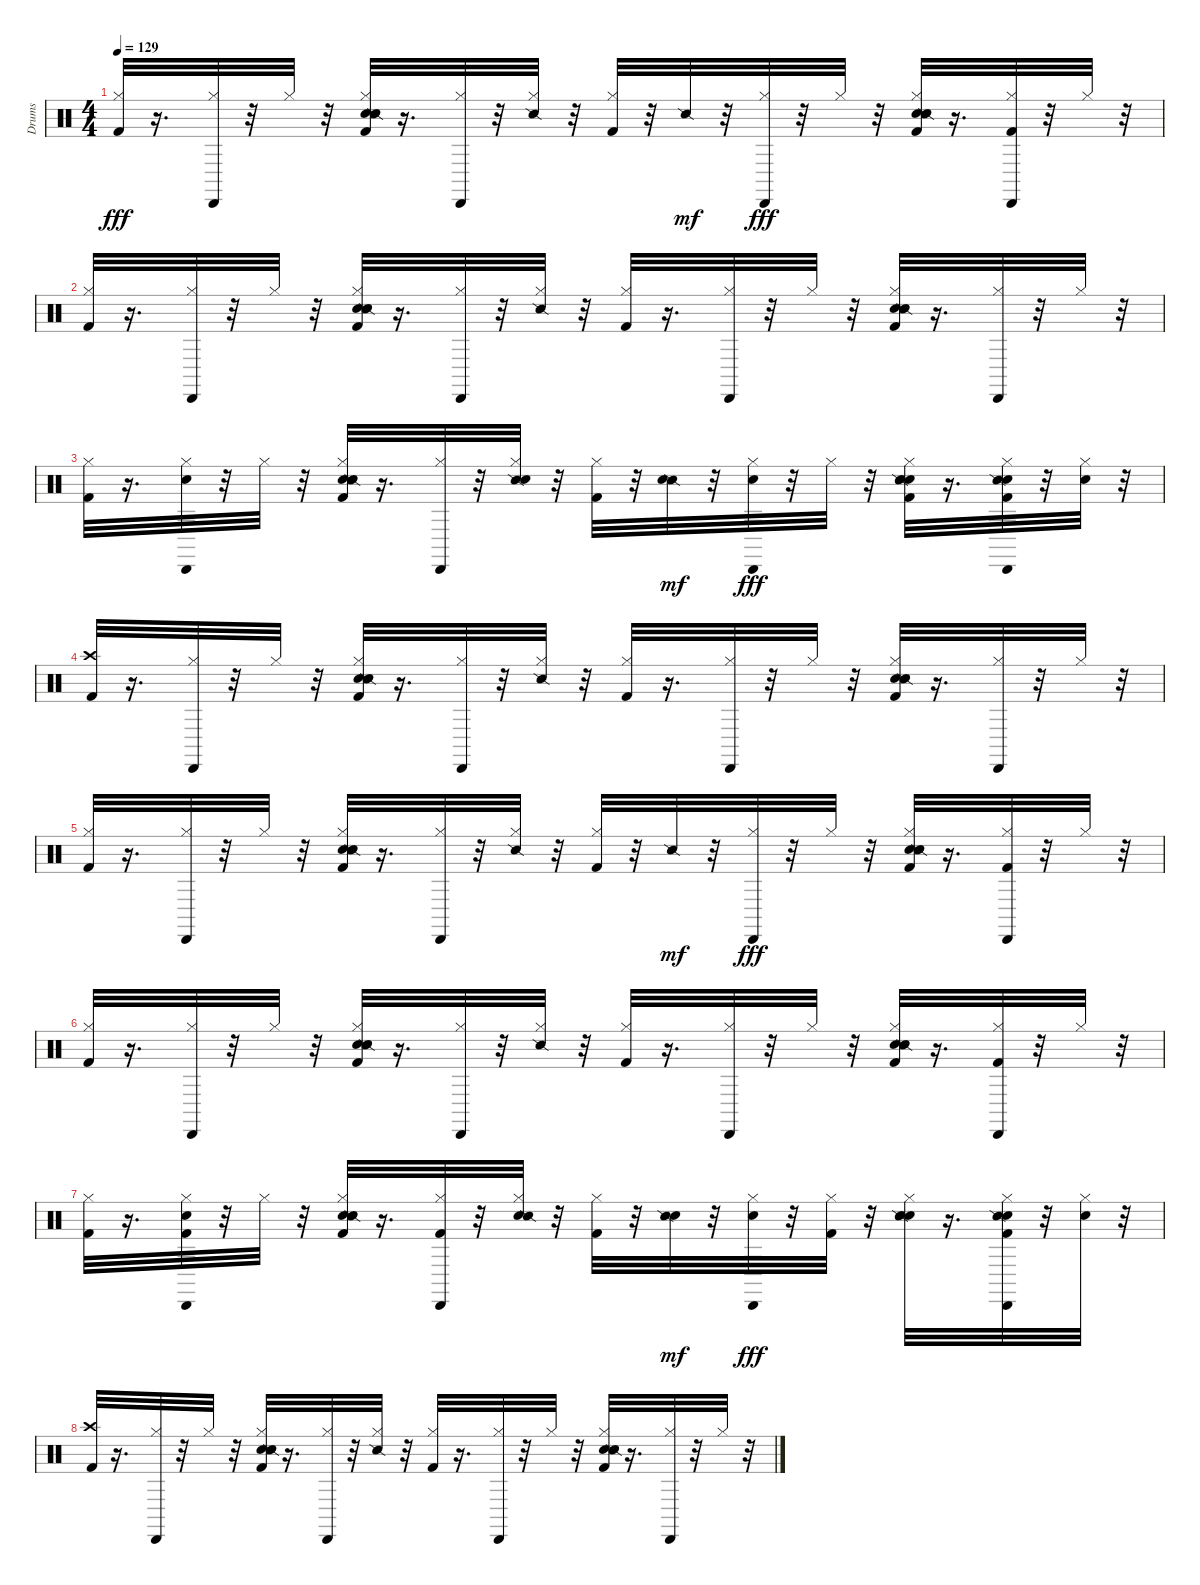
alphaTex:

\track ("Drums" "Drums") {instrument percussion}
\staff {score}
\articulation defaults
\ts (4 4)
\tempo 129
\clef neutral
\ks c
("Kick (hit) 2" "Hi-Hat (closed)").32{dy fff} r.16{d} ("Cabasa (hit)" "Hi-Hat (closed)").32 r.32 "Hi-Hat (closed)".32 r.32 ("Snare (hit)" "Hand Clap (hit)" "Snare (side stick) 2" "Hi-Hat (closed)" "Kick (hit) 2").32 r.16{d} ("Cabasa (hit)" "Hi-Hat (closed)").32 r.32 ("Snare (side stick) 2" "Hi-Hat (closed)").32 r.32 ("Kick (hit) 2" "Hi-Hat (closed)").32 r.32 "Snare (side stick) 2".32{dy mf} r.32 ("Cabasa (hit)" "Hi-Hat (closed)").32{dy fff} r.32 "Hi-Hat (closed)".32 r.32 ("Snare (hit)" "Hand Clap (hit)" "Snare (side stick) 2" "Hi-Hat (closed)" "Kick (hit) 2").32 r.16{d} ("Kick (hit) 2" "Cabasa (hit)" "Hi-Hat (closed)").32 r.32 "Hi-Hat (closed)".32 r.32 |
("Kick (hit) 2" "Hi-Hat (closed)").32 r.16{d} ("Cabasa (hit)" "Hi-Hat (closed)").32 r.32 "Hi-Hat (closed)".32 r.32 ("Snare (hit)" "Snare (side stick) 2" "Hi-Hat (closed)" "Kick (hit) 2" "Hand Clap (hit)").32 r.16{d} ("Cabasa (hit)" "Hi-Hat (closed)").32 r.32 ("Snare (side stick) 2" "Hi-Hat (closed)").32 r.32 ("Kick (hit) 2" "Hi-Hat (closed)").32 r.16{d} ("Cabasa (hit)" "Hi-Hat (closed)").32 r.32 "Hi-Hat (closed)".32 r.32 ("Snare (hit)" "Snare (side stick) 2" "Hi-Hat (closed)" "Kick (hit) 2" "Hand Clap (hit)").32 r.16{d} ("Cabasa (hit)" "Hi-Hat (closed)").32 r.32 "Hi-Hat (closed)".32 r.32 |
("Kick (hit) 2" "Hi-Hat (closed)").32 r.16{d} ("Cabasa (hit)" "Hi-Hat (closed)" "Hand Clap (hit)").32 r.32 "Hi-Hat (closed)".32 r.32 ("Snare (hit)" "Snare (side stick) 2" "Hi-Hat (closed)" "Kick (hit) 2" "Hand Clap (hit)").32 r.16{d} ("Cabasa (hit)" "Hi-Hat (closed)").32 r.32 ("Snare (side stick) 2" "Hi-Hat (closed)" "Hand Clap (hit)").32 r.32 ("Kick (hit) 2" "Hi-Hat (closed)").32 r.32 ("Snare (side stick) 2" "Hand Clap (hit)").32{dy mf} r.32 ("Cabasa (hit)" "Hi-Hat (closed)" "Hand Clap (hit)").32{dy fff} r.32 "Hi-Hat (closed)".32 r.32 ("Snare (hit)" "Snare (side stick) 2" "Hi-Hat (closed)" "Kick (hit) 2" "Hand Clap (hit)").32 r.16{d} ("Kick (hit) 2" "Cabasa (hit)" "Hi-Hat (closed)" "Hand Clap (hit)" "Snare (side stick) 2").32 r.32 ("Hi-Hat (closed)" "Hand Clap (hit)").32 r.32 |
("Kick (hit) 2" "Crash high (hit)").32 r.16{d} ("Cabasa (hit)" "Hi-Hat (closed)").32 r.32 "Hi-Hat (closed)".32 r.32 ("Snare (hit)" "Snare (side stick) 2" "Hi-Hat (closed)" "Kick (hit) 2" "Hand Clap (hit)").32 r.16{d} ("Cabasa (hit)" "Hi-Hat (closed)").32 r.32 ("Snare (side stick) 2" "Hi-Hat (closed)").32 r.32 ("Kick (hit) 2" "Hi-Hat (closed)").32 r.16{d} ("Cabasa (hit)" "Hi-Hat (closed)").32 r.32 "Hi-Hat (closed)".32 r.32 ("Snare (hit)" "Snare (side stick) 2" "Hi-Hat (closed)" "Kick (hit) 2" "Hand Clap (hit)").32 r.16{d} ("Cabasa (hit)" "Hi-Hat (closed)").32 r.32 "Hi-Hat (closed)".32 r.32 |
("Kick (hit) 2" "Hi-Hat (closed)").32 r.16{d} ("Cabasa (hit)" "Hi-Hat (closed)").32 r.32 "Hi-Hat (closed)".32 r.32 ("Snare (hit)" "Snare (side stick) 2" "Hi-Hat (closed)" "Kick (hit) 2" "Hand Clap (hit)").32 r.16{d} ("Cabasa (hit)" "Hi-Hat (closed)").32 r.32 ("Snare (side stick) 2" "Hi-Hat (closed)").32 r.32 ("Kick (hit) 2" "Hi-Hat (closed)").32 r.32 "Snare (side stick) 2".32{dy mf} r.32 ("Cabasa (hit)" "Hi-Hat (closed)").32{dy fff} r.32 "Hi-Hat (closed)".32 r.32 ("Snare (hit)" "Snare (side stick) 2" "Hi-Hat (closed)" "Kick (hit) 2" "Hand Clap (hit)").32 r.16{d} ("Kick (hit) 2" "Cabasa (hit)" "Hi-Hat (closed)").32 r.32 "Hi-Hat (closed)".32 r.32 |
("Kick (hit) 2" "Hi-Hat (closed)").32 r.16{d} ("Cabasa (hit)" "Hi-Hat (closed)").32 r.32 "Hi-Hat (closed)".32 r.32 ("Snare (hit)" "Hand Clap (hit)" "Snare (side stick) 2" "Hi-Hat (closed)" "Kick (hit) 2").32 r.16{d} ("Cabasa (hit)" "Hi-Hat (closed)").32 r.32 ("Snare (side stick) 2" "Hi-Hat (closed)").32 r.32 ("Kick (hit) 2" "Hi-Hat (closed)").32 r.16{d} ("Cabasa (hit)" "Hi-Hat (closed)").32 r.32 "Hi-Hat (closed)".32 r.32 ("Snare (hit)" "Hand Clap (hit)" "Snare (side stick) 2" "Hi-Hat (closed)" "Kick (hit) 2").32 r.16{d} ("Cabasa (hit)" "Hi-Hat (closed)" "Kick (hit) 2").32 r.32 "Hi-Hat (closed)".32 r.32 |
("Kick (hit) 2" "Hi-Hat (closed)").32 r.16{d} ("Hand Clap (hit)" "Cabasa (hit)" "Hi-Hat (closed)" "Kick (hit) 2").32 r.32 "Hi-Hat (closed)".32 r.32 ("Snare (hit)" "Hand Clap (hit)" "Snare (side stick) 2" "Hi-Hat (closed)" "Kick (hit) 2").32 r.16{d} ("Cabasa (hit)" "Hi-Hat (closed)" "Kick (hit) 2").32 r.32 ("Hand Clap (hit)" "Snare (side stick) 2" "Hi-Hat (closed)").32 r.32 ("Kick (hit) 2" "Hi-Hat (closed)").32 r.32 ("Hand Clap (hit)" "Snare (side stick) 2").32{dy mf} r.32 ("Hand Clap (hit)" "Cabasa (hit)" "Hi-Hat (closed)").32{dy fff} r.32 ("Hi-Hat (closed)" "Kick (hit) 2").32 r.32 ("Snare (hit)" "Hand Clap (hit)" "Snare (side stick) 2" "Hi-Hat (closed)").32 r.16{d} ("Hand Clap (hit)" "Kick (hit) 2" "Cabasa (hit)" "Hi-Hat (closed)" "Snare (side stick) 2").32 r.32 ("Hand Clap (hit)" "Hi-Hat (closed)").32 r.32 |
("Kick (hit) 2" "Crash high (hit)").32 r.16{d} ("Cabasa (hit)" "Hi-Hat (closed)").32 r.32 "Hi-Hat (closed)".32 r.32 ("Snare (hit)" "Hand Clap (hit)" "Snare (side stick) 2" "Hi-Hat (closed)" "Kick (hit) 2").32 r.16{d} ("Cabasa (hit)" "Hi-Hat (closed)").32 r.32 ("Snare (side stick) 2" "Hi-Hat (closed)").32 r.32 ("Kick (hit) 2" "Hi-Hat (closed)").32 r.16{d} ("Cabasa (hit)" "Hi-Hat (closed)").32 r.32 "Hi-Hat (closed)".32 r.32 ("Snare (hit)" "Hand Clap (hit)" "Snare (side stick) 2" "Hi-Hat (closed)" "Kick (hit) 2").32 r.16{d} ("Cabasa (hit)" "Hi-Hat (closed)").32 r.32 "Hi-Hat (closed)".32 r.32
